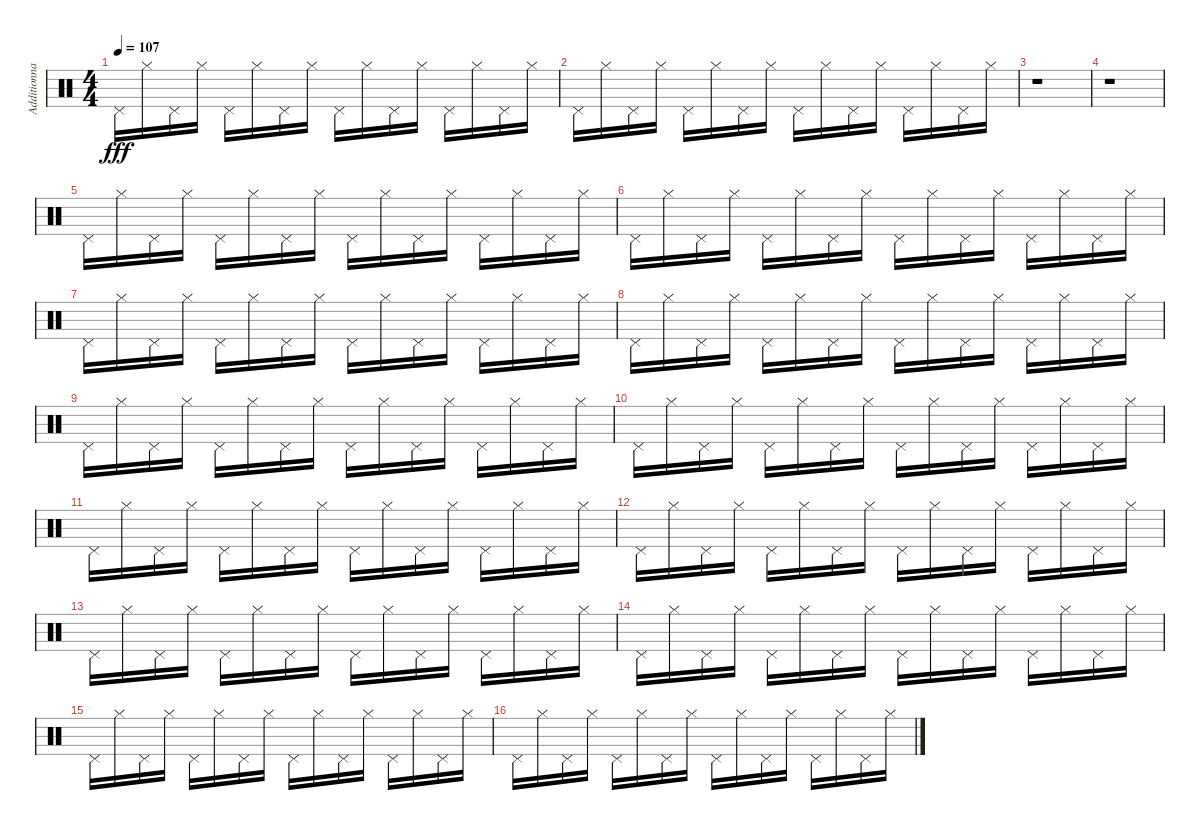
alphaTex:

\track ("Additionnals Symbals" "Additionna") {instrument percussion}
\staff {score}
\articulation defaults
\ts (4 4)
\tempo 107
\clef neutral
\ks c "Pedal Hi-Hat (hit)".16{dy fff} "Hi-Hat (closed)".16 "Pedal Hi-Hat (hit)".16 "Hi-Hat (closed)".16 "Pedal Hi-Hat (hit)".16 "Hi-Hat (closed)".16 "Pedal Hi-Hat (hit)".16 "Hi-Hat (closed)".16 "Pedal Hi-Hat (hit)".16 "Hi-Hat (closed)".16 "Pedal Hi-Hat (hit)".16 "Hi-Hat (closed)".16 "Pedal Hi-Hat (hit)".16 "Hi-Hat (closed)".16 "Pedal Hi-Hat (hit)".16 "Hi-Hat (closed)".16
|
"Pedal Hi-Hat (hit)".16 "Hi-Hat (closed)".16 "Pedal Hi-Hat (hit)".16 "Hi-Hat (closed)".16 "Pedal Hi-Hat (hit)".16 "Hi-Hat (closed)".16 "Pedal Hi-Hat (hit)".16 "Hi-Hat (closed)".16 "Pedal Hi-Hat (hit)".16 "Hi-Hat (closed)".16 "Pedal Hi-Hat (hit)".16 "Hi-Hat (closed)".16 "Pedal Hi-Hat (hit)".16 "Hi-Hat (closed)".16 "Pedal Hi-Hat (hit)".16 "Hi-Hat (closed)".16 |
r.1 |
r.1 |
"Pedal Hi-Hat (hit)".16 "Hi-Hat (closed)".16 "Pedal Hi-Hat (hit)".16 "Hi-Hat (closed)".16 "Pedal Hi-Hat (hit)".16 "Hi-Hat (closed)".16 "Pedal Hi-Hat (hit)".16 "Hi-Hat (closed)".16 "Pedal Hi-Hat (hit)".16 "Hi-Hat (closed)".16 "Pedal Hi-Hat (hit)".16 "Hi-Hat (closed)".16 "Pedal Hi-Hat (hit)".16 "Hi-Hat (closed)".16 "Pedal Hi-Hat (hit)".16 "Hi-Hat (closed)".16 |
"Pedal Hi-Hat (hit)".16 "Hi-Hat (closed)".16 "Pedal Hi-Hat (hit)".16 "Hi-Hat (closed)".16 "Pedal Hi-Hat (hit)".16 "Hi-Hat (closed)".16 "Pedal Hi-Hat (hit)".16 "Hi-Hat (closed)".16 "Pedal Hi-Hat (hit)".16 "Hi-Hat (closed)".16 "Pedal Hi-Hat (hit)".16 "Hi-Hat (closed)".16 "Pedal Hi-Hat (hit)".16 "Hi-Hat (closed)".16 "Pedal Hi-Hat (hit)".16 "Hi-Hat (closed)".16 |
"Pedal Hi-Hat (hit)".16 "Hi-Hat (closed)".16 "Pedal Hi-Hat (hit)".16 "Hi-Hat (closed)".16 "Pedal Hi-Hat (hit)".16 "Hi-Hat (closed)".16 "Pedal Hi-Hat (hit)".16 "Hi-Hat (closed)".16 "Pedal Hi-Hat (hit)".16 "Hi-Hat (closed)".16 "Pedal Hi-Hat (hit)".16 "Hi-Hat (closed)".16 "Pedal Hi-Hat (hit)".16 "Hi-Hat (closed)".16 "Pedal Hi-Hat (hit)".16 "Hi-Hat (closed)".16 |
"Pedal Hi-Hat (hit)".16 "Hi-Hat (closed)".16 "Pedal Hi-Hat (hit)".16 "Hi-Hat (closed)".16 "Pedal Hi-Hat (hit)".16 "Hi-Hat (closed)".16 "Pedal Hi-Hat (hit)".16 "Hi-Hat (closed)".16 "Pedal Hi-Hat (hit)".16 "Hi-Hat (closed)".16 "Pedal Hi-Hat (hit)".16 "Hi-Hat (closed)".16 "Pedal Hi-Hat (hit)".16 "Hi-Hat (closed)".16 "Pedal Hi-Hat (hit)".16 "Hi-Hat (closed)".16 |
"Pedal Hi-Hat (hit)".16 "Hi-Hat (closed)".16 "Pedal Hi-Hat (hit)".16 "Hi-Hat (closed)".16 "Pedal Hi-Hat (hit)".16 "Hi-Hat (closed)".16 "Pedal Hi-Hat (hit)".16 "Hi-Hat (closed)".16 "Pedal Hi-Hat (hit)".16 "Hi-Hat (closed)".16 "Pedal Hi-Hat (hit)".16 "Hi-Hat (closed)".16 "Pedal Hi-Hat (hit)".16 "Hi-Hat (closed)".16 "Pedal Hi-Hat (hit)".16 "Hi-Hat (closed)".16 |
"Pedal Hi-Hat (hit)".16 "Hi-Hat (closed)".16 "Pedal Hi-Hat (hit)".16 "Hi-Hat (closed)".16 "Pedal Hi-Hat (hit)".16 "Hi-Hat (closed)".16 "Pedal Hi-Hat (hit)".16 "Hi-Hat (closed)".16 "Pedal Hi-Hat (hit)".16 "Hi-Hat (closed)".16 "Pedal Hi-Hat (hit)".16 "Hi-Hat (closed)".16 "Pedal Hi-Hat (hit)".16 "Hi-Hat (closed)".16 "Pedal Hi-Hat (hit)".16 "Hi-Hat (closed)".16 |
"Pedal Hi-Hat (hit)".16 "Hi-Hat (closed)".16 "Pedal Hi-Hat (hit)".16 "Hi-Hat (closed)".16 "Pedal Hi-Hat (hit)".16 "Hi-Hat (closed)".16 "Pedal Hi-Hat (hit)".16 "Hi-Hat (closed)".16 "Pedal Hi-Hat (hit)".16 "Hi-Hat (closed)".16 "Pedal Hi-Hat (hit)".16 "Hi-Hat (closed)".16 "Pedal Hi-Hat (hit)".16 "Hi-Hat (closed)".16 "Pedal Hi-Hat (hit)".16 "Hi-Hat (closed)".16 |
"Pedal Hi-Hat (hit)".16 "Hi-Hat (closed)".16 "Pedal Hi-Hat (hit)".16 "Hi-Hat (closed)".16 "Pedal Hi-Hat (hit)".16 "Hi-Hat (closed)".16 "Pedal Hi-Hat (hit)".16 "Hi-Hat (closed)".16 "Pedal Hi-Hat (hit)".16 "Hi-Hat (closed)".16 "Pedal Hi-Hat (hit)".16 "Hi-Hat (closed)".16 "Pedal Hi-Hat (hit)".16 "Hi-Hat (closed)".16 "Pedal Hi-Hat (hit)".16 "Hi-Hat (closed)".16 |
"Pedal Hi-Hat (hit)".16 "Hi-Hat (closed)".16 "Pedal Hi-Hat (hit)".16 "Hi-Hat (closed)".16 "Pedal Hi-Hat (hit)".16 "Hi-Hat (closed)".16 "Pedal Hi-Hat (hit)".16 "Hi-Hat (closed)".16 "Pedal Hi-Hat (hit)".16 "Hi-Hat (closed)".16 "Pedal Hi-Hat (hit)".16 "Hi-Hat (closed)".16 "Pedal Hi-Hat (hit)".16 "Hi-Hat (closed)".16 "Pedal Hi-Hat (hit)".16 "Hi-Hat (closed)".16 |
"Pedal Hi-Hat (hit)".16 "Hi-Hat (closed)".16 "Pedal Hi-Hat (hit)".16 "Hi-Hat (closed)".16 "Pedal Hi-Hat (hit)".16 "Hi-Hat (closed)".16 "Pedal Hi-Hat (hit)".16 "Hi-Hat (closed)".16 "Pedal Hi-Hat (hit)".16 "Hi-Hat (closed)".16 "Pedal Hi-Hat (hit)".16 "Hi-Hat (closed)".16 "Pedal Hi-Hat (hit)".16 "Hi-Hat (closed)".16 "Pedal Hi-Hat (hit)".16 "Hi-Hat (closed)".16 |
"Pedal Hi-Hat (hit)".16 "Hi-Hat (closed)".16 "Pedal Hi-Hat (hit)".16 "Hi-Hat (closed)".16 "Pedal Hi-Hat (hit)".16 "Hi-Hat (closed)".16 "Pedal Hi-Hat (hit)".16 "Hi-Hat (closed)".16 "Pedal Hi-Hat (hit)".16 "Hi-Hat (closed)".16 "Pedal Hi-Hat (hit)".16 "Hi-Hat (closed)".16 "Pedal Hi-Hat (hit)".16 "Hi-Hat (closed)".16 "Pedal Hi-Hat (hit)".16 "Hi-Hat (closed)".16 |
"Pedal Hi-Hat (hit)".16 "Hi-Hat (closed)".16 "Pedal Hi-Hat (hit)".16 "Hi-Hat (closed)".16 "Pedal Hi-Hat (hit)".16 "Hi-Hat (closed)".16 "Pedal Hi-Hat (hit)".16 "Hi-Hat (closed)".16 "Pedal Hi-Hat (hit)".16 "Hi-Hat (closed)".16 "Pedal Hi-Hat (hit)".16 "Hi-Hat (closed)".16 "Pedal Hi-Hat (hit)".16 "Hi-Hat (closed)".16 "Pedal Hi-Hat (hit)".16 "Hi-Hat (closed)".16
